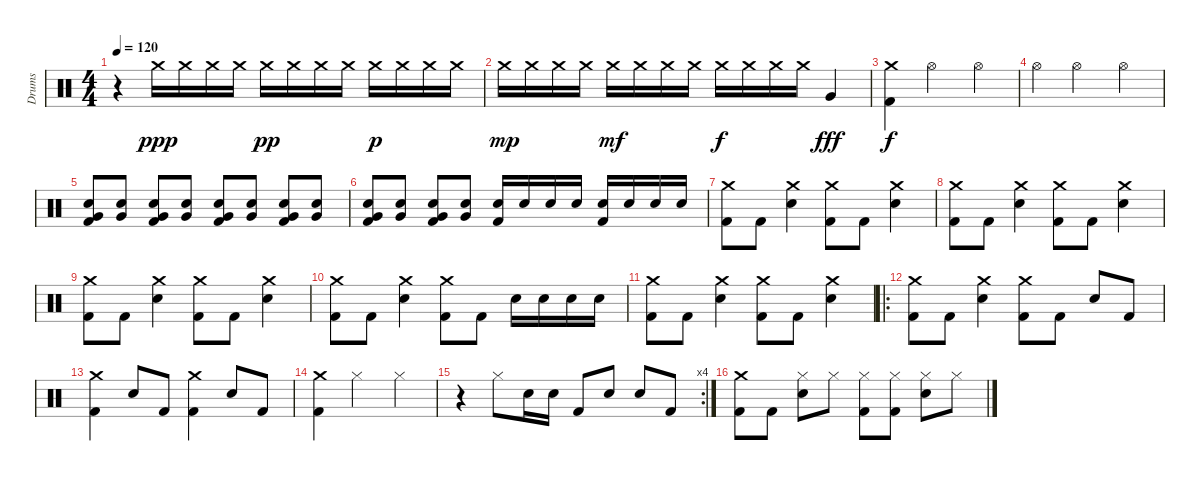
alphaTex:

\track ("Drums" "Drums") {instrument percussion}
\staff {score}
\articulation defaults
\ts (4 4)
\tempo 120
\clef neutral
\ks c
r.4{dy ppp} "Crash medium (hit)".16 "Crash medium (hit)".16 "Crash medium (hit)".16 "Crash medium (hit)".16 "Crash medium (hit)".16{dy pp} "Crash medium (hit)".16 "Crash medium (hit)".16 "Crash medium (hit)".16 "Crash medium (hit)".16{dy p} "Crash medium (hit)".16 "Crash medium (hit)".16 "Crash medium (hit)".16 |
"Crash medium (hit)".16{dy mp} "Crash medium (hit)".16 "Crash medium (hit)".16 "Crash medium (hit)".16 "Crash medium (hit)".16{dy mf} "Crash medium (hit)".16 "Crash medium (hit)".16 "Crash medium (hit)".16 "Crash medium (hit)".16{dy f} "Crash medium (hit)".16 "Crash medium (hit)".16 "Crash medium (hit)".16 "Very Low Tom (hit)".4{dy fff} |
("Crash medium (hit)" "Kick (hit) 2").4{dy f} "Hi-Hat (open)".2 "Hi-Hat (open)".4 |
"Hi-Hat (open)".4 "Hi-Hat (open)".2 "Hi-Hat (open)".4 |
("Very Low Tom (hit)" "Electric Snare (hit)" "Kick (hit) 2").8 ("Very Low Tom (hit)" "Electric Snare (hit)").8 ("Very Low Tom (hit)" "Electric Snare (hit)" "Kick (hit) 2").8 ("Very Low Tom (hit)" "Electric Snare (hit)").8 ("Very Low Tom (hit)" "Electric Snare (hit)" "Kick (hit) 2").8 ("Very Low Tom (hit)" "Electric Snare (hit)").8 ("Very Low Tom (hit)" "Electric Snare (hit)" "Kick (hit) 2").8 ("Very Low Tom (hit)" "Electric Snare (hit)").8 |
("Very Low Tom (hit)" "Electric Snare (hit)" "Kick (hit) 2").8 ("Very Low Tom (hit)" "Electric Snare (hit)").8 ("Very Low Tom (hit)" "Electric Snare (hit)" "Kick (hit) 2").8 ("Very Low Tom (hit)" "Electric Snare (hit)").8 ("Electric Snare (hit)" "Kick (hit) 2").16 "Electric Snare (hit)".16 "Electric Snare (hit)".16 "Electric Snare (hit)".16 ("Electric Snare (hit)" "Kick (hit) 2").16 "Electric Snare (hit)".16 "Electric Snare (hit)".16 "Electric Snare (hit)".16 |
("Crash medium (hit)" "Kick (hit) 2").8 "Kick (hit) 2".8 ("Crash medium (hit)" "Electric Snare (hit)").4 ("Crash medium (hit)" "Kick (hit) 2").8 "Kick (hit) 2".8 ("Crash medium (hit)" "Electric Snare (hit)").4 |
("Crash medium (hit)" "Kick (hit) 2").8 "Kick (hit) 2".8 ("Crash medium (hit)" "Electric Snare (hit)").4 ("Crash medium (hit)" "Kick (hit) 2").8 "Kick (hit) 2".8 ("Crash medium (hit)" "Electric Snare (hit)").4 |
("Crash medium (hit)" "Kick (hit) 2").8 "Kick (hit) 2".8 ("Crash medium (hit)" "Electric Snare (hit)").4 ("Crash medium (hit)" "Kick (hit) 2").8 "Kick (hit) 2".8 ("Crash medium (hit)" "Electric Snare (hit)").4 |
("Crash medium (hit)" "Kick (hit) 2").8 "Kick (hit) 2".8 ("Crash medium (hit)" "Electric Snare (hit)").4 ("Crash medium (hit)" "Kick (hit) 2").8 "Kick (hit) 2".8 "Electric Snare (hit)".16 "Electric Snare (hit)".16 "Electric Snare (hit)".16 "Electric Snare (hit)".16 |
("Crash medium (hit)" "Kick (hit) 2").8 "Kick (hit) 2".8 ("Crash medium (hit)" "Electric Snare (hit)").4 ("Crash medium (hit)" "Kick (hit) 2").8 "Kick (hit) 2".8 ("Crash medium (hit)" "Electric Snare (hit)").4 |
\ro
("Crash medium (hit)" "Kick (hit) 2").8 "Kick (hit) 2".8 ("Crash medium (hit)" "Electric Snare (hit)").4 ("Crash medium (hit)" "Kick (hit) 2").8 "Kick (hit) 2".8 "Electric Snare (hit)".8 "Kick (hit) 2".8 |
("Crash medium (hit)" "Kick (hit) 2").4 "Electric Snare (hit)".8 "Kick (hit) 2".8 ("Crash medium (hit)" "Kick (hit) 2").4 "Electric Snare (hit)".8 "Kick (hit) 2".8 |
("Crash medium (hit)" "Kick (hit) 2").4 "Hi-Hat (closed)".2 "Hi-Hat (closed)".4 |
\rc 4
r.4 "Hi-Hat (closed)".8 "Electric Snare (hit)".16 "Electric Snare (hit)".16 "Kick (hit) 2".8 "Electric Snare (hit)".8 "Electric Snare (hit)".8 "Kick (hit) 2".8 |
("Crash medium (hit)" "Kick (hit) 2").8 "Kick (hit) 2".8 ("Hi-Hat (closed)" "Electric Snare (hit)").8 "Hi-Hat (closed)".8 ("Hi-Hat (closed)" "Kick (hit) 2").8 ("Hi-Hat (closed)" "Kick (hit) 2").8 ("Hi-Hat (closed)" "Electric Snare (hit)").8 "Hi-Hat (closed)".8
